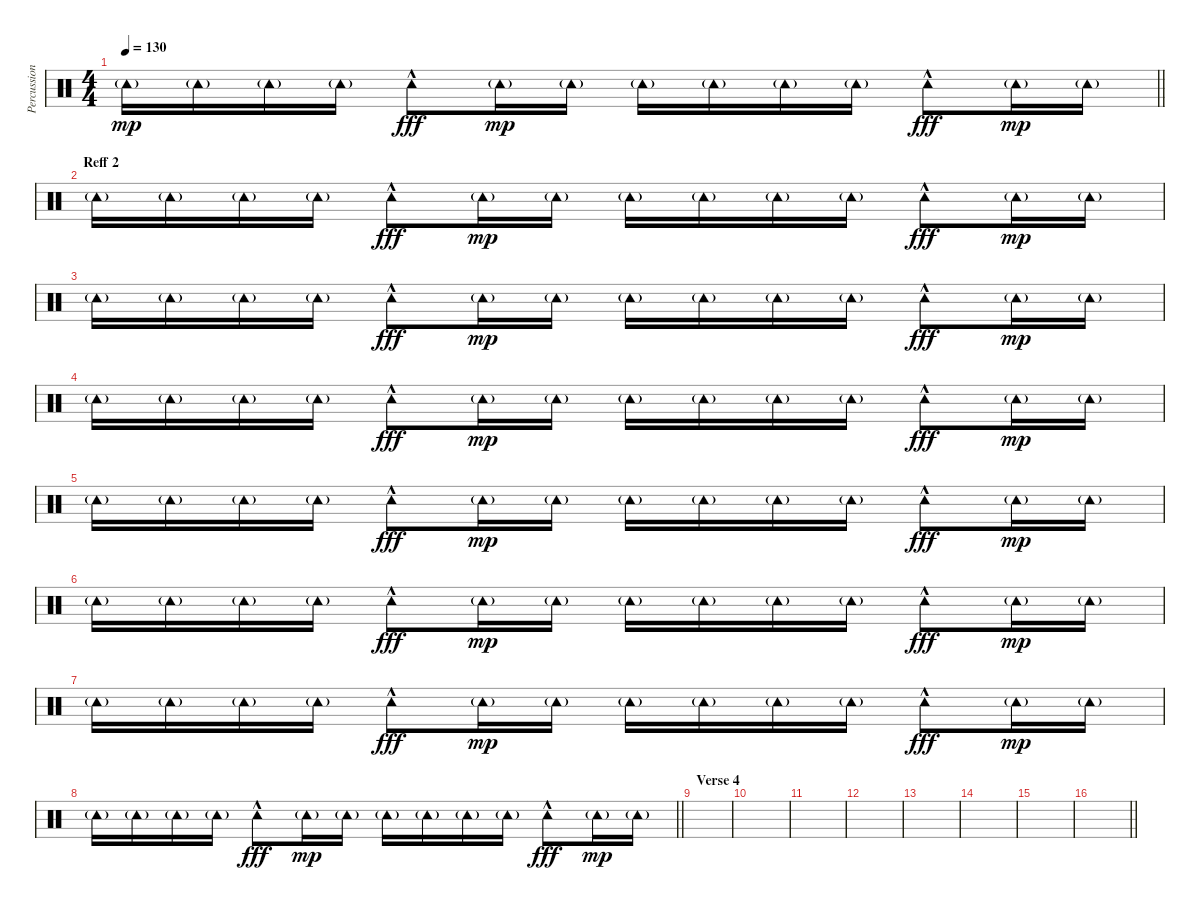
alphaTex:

\track ("Percussion 2" "Percussion") {instrument percussion}
\staff {score}
\articulation defaults
\ts (4 4)
\tempo 130
\clef neutral
\barLineRight lightlight
\ks c "Tambourine (hit)"{g}.16{dy mp} "Tambourine (hit)"{g}.16 "Tambourine (hit)"{g}.16 "Tambourine (hit)"{g}.16 "Tambourine (hit)"{hac}.8{dy fff} "Tambourine (hit)"{g}.16{dy mp} "Tambourine (hit)"{g}.16 "Tambourine (hit)"{g}.16 "Tambourine (hit)"{g}.16 "Tambourine (hit)"{g}.16 "Tambourine (hit)"{g}.16 "Tambourine (hit)"{hac}.8{dy fff} "Tambourine (hit)"{g}.16{dy mp} "Tambourine (hit)"{g}.16
|
\section ("" "Reff 2")
"Tambourine (hit)"{g}.16 "Tambourine (hit)"{g}.16 "Tambourine (hit)"{g}.16 "Tambourine (hit)"{g}.16 "Tambourine (hit)"{hac}.8{dy fff} "Tambourine (hit)"{g}.16{dy mp} "Tambourine (hit)"{g}.16 "Tambourine (hit)"{g}.16 "Tambourine (hit)"{g}.16 "Tambourine (hit)"{g}.16 "Tambourine (hit)"{g}.16 "Tambourine (hit)"{hac}.8{dy fff} "Tambourine (hit)"{g}.16{dy mp} "Tambourine (hit)"{g}.16 |
"Tambourine (hit)"{g}.16 "Tambourine (hit)"{g}.16 "Tambourine (hit)"{g}.16 "Tambourine (hit)"{g}.16 "Tambourine (hit)"{hac}.8{dy fff} "Tambourine (hit)"{g}.16{dy mp} "Tambourine (hit)"{g}.16 "Tambourine (hit)"{g}.16 "Tambourine (hit)"{g}.16 "Tambourine (hit)"{g}.16 "Tambourine (hit)"{g}.16 "Tambourine (hit)"{hac}.8{dy fff} "Tambourine (hit)"{g}.16{dy mp} "Tambourine (hit)"{g}.16 |
"Tambourine (hit)"{g}.16 "Tambourine (hit)"{g}.16 "Tambourine (hit)"{g}.16 "Tambourine (hit)"{g}.16 "Tambourine (hit)"{hac}.8{dy fff} "Tambourine (hit)"{g}.16{dy mp} "Tambourine (hit)"{g}.16 "Tambourine (hit)"{g}.16 "Tambourine (hit)"{g}.16 "Tambourine (hit)"{g}.16 "Tambourine (hit)"{g}.16 "Tambourine (hit)"{hac}.8{dy fff} "Tambourine (hit)"{g}.16{dy mp} "Tambourine (hit)"{g}.16 |
"Tambourine (hit)"{g}.16 "Tambourine (hit)"{g}.16 "Tambourine (hit)"{g}.16 "Tambourine (hit)"{g}.16 "Tambourine (hit)"{hac}.8{dy fff} "Tambourine (hit)"{g}.16{dy mp} "Tambourine (hit)"{g}.16 "Tambourine (hit)"{g}.16 "Tambourine (hit)"{g}.16 "Tambourine (hit)"{g}.16 "Tambourine (hit)"{g}.16 "Tambourine (hit)"{hac}.8{dy fff} "Tambourine (hit)"{g}.16{dy mp} "Tambourine (hit)"{g}.16 |
"Tambourine (hit)"{g}.16 "Tambourine (hit)"{g}.16 "Tambourine (hit)"{g}.16 "Tambourine (hit)"{g}.16 "Tambourine (hit)"{hac}.8{dy fff} "Tambourine (hit)"{g}.16{dy mp} "Tambourine (hit)"{g}.16 "Tambourine (hit)"{g}.16 "Tambourine (hit)"{g}.16 "Tambourine (hit)"{g}.16 "Tambourine (hit)"{g}.16 "Tambourine (hit)"{hac}.8{dy fff} "Tambourine (hit)"{g}.16{dy mp} "Tambourine (hit)"{g}.16 |
"Tambourine (hit)"{g}.16 "Tambourine (hit)"{g}.16 "Tambourine (hit)"{g}.16 "Tambourine (hit)"{g}.16 "Tambourine (hit)"{hac}.8{dy fff} "Tambourine (hit)"{g}.16{dy mp} "Tambourine (hit)"{g}.16 "Tambourine (hit)"{g}.16 "Tambourine (hit)"{g}.16 "Tambourine (hit)"{g}.16 "Tambourine (hit)"{g}.16 "Tambourine (hit)"{hac}.8{dy fff} "Tambourine (hit)"{g}.16{dy mp} "Tambourine (hit)"{g}.16 |
\barLineRight lightlight "Tambourine (hit)"{g}.16 "Tambourine (hit)"{g}.16 "Tambourine (hit)"{g}.16 "Tambourine (hit)"{g}.16 "Tambourine (hit)"{hac}.8{dy fff} "Tambourine (hit)"{g}.16{dy mp} "Tambourine (hit)"{g}.16 "Tambourine (hit)"{g}.16 "Tambourine (hit)"{g}.16 "Tambourine (hit)"{g}.16 "Tambourine (hit)"{g}.16 "Tambourine (hit)"{hac}.8{dy fff} "Tambourine (hit)"{g}.16{dy mp} "Tambourine (hit)"{g}.16
|
\section ("" "Verse 4")
|
|
|
|
|
|
|
\barLineRight lightlight
